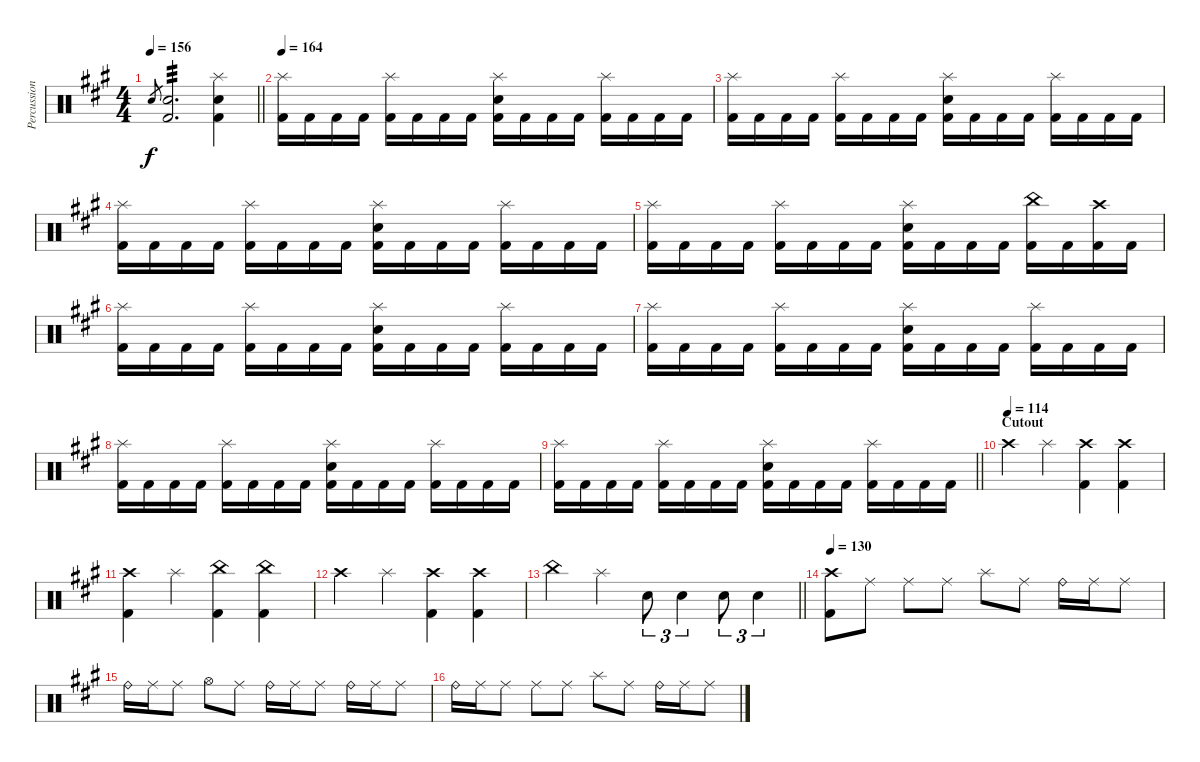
\track ("Percussion" "Percussion") {instrument percussion bank 127}
\staff {score}
\articulation defaults
\ts (4 4)
\tempo 156
\clef neutral
\barLineRight lightlight
\ks a "Electric Snare (hit)".8{gr dy f}
("Electric Snare (hit)" "Kick (hit) 2").2{d tp 3} ("Splash (hit)" "Electric Snare (hit)" "Kick (hit) 2").4 |
\section ("" "")
\tempo 164
("Splash (hit)" "Kick (hit) 2").16 "Kick (hit) 2".16 "Kick (hit) 2".16 "Kick (hit) 2".16 ("Splash (hit)" "Kick (hit) 2").16 "Kick (hit) 2".16 "Kick (hit) 2".16 "Kick (hit) 2".16 ("Splash (hit)" "Electric Snare (hit)" "Kick (hit) 2").16 "Kick (hit) 2".16 "Kick (hit) 2".16 "Kick (hit) 2".16 ("Splash (hit)" "Kick (hit) 2").16 "Kick (hit) 2".16 "Kick (hit) 2".16 "Kick (hit) 2".16 |
("Splash (hit)" "Kick (hit) 2").16 "Kick (hit) 2".16 "Kick (hit) 2".16 "Kick (hit) 2".16 ("Splash (hit)" "Kick (hit) 2").16 "Kick (hit) 2".16 "Kick (hit) 2".16 "Kick (hit) 2".16 ("Splash (hit)" "Electric Snare (hit)" "Kick (hit) 2").16 "Kick (hit) 2".16 "Kick (hit) 2".16 "Kick (hit) 2".16 ("Splash (hit)" "Kick (hit) 2").16 "Kick (hit) 2".16 "Kick (hit) 2".16 "Kick (hit) 2".16 |
("Splash (hit)" "Kick (hit) 2").16 "Kick (hit) 2".16 "Kick (hit) 2".16 "Kick (hit) 2".16 ("Splash (hit)" "Kick (hit) 2").16 "Kick (hit) 2".16 "Kick (hit) 2".16 "Kick (hit) 2".16 ("Splash (hit)" "Electric Snare (hit)" "Kick (hit) 2").16 "Kick (hit) 2".16 "Kick (hit) 2".16 "Kick (hit) 2".16 ("Splash (hit)" "Kick (hit) 2").16 "Kick (hit) 2".16 "Kick (hit) 2".16 "Kick (hit) 2".16 |
("Splash (hit)" "Kick (hit) 2").16 "Kick (hit) 2".16 "Kick (hit) 2".16 "Kick (hit) 2".16 ("Splash (hit)" "Kick (hit) 2").16 "Kick (hit) 2".16 "Kick (hit) 2".16 "Kick (hit) 2".16 ("Splash (hit)" "Electric Snare (hit)" "Kick (hit) 2").16 "Kick (hit) 2".16 "Kick (hit) 2".16 "Kick (hit) 2".16 ("China (hit)" "Kick (hit) 2").16 "Kick (hit) 2".16 ("Crash high (hit)" "Kick (hit) 2").16 "Kick (hit) 2".16 |
("Splash (hit)" "Kick (hit) 2").16 "Kick (hit) 2".16 "Kick (hit) 2".16 "Kick (hit) 2".16 ("Splash (hit)" "Kick (hit) 2").16 "Kick (hit) 2".16 "Kick (hit) 2".16 "Kick (hit) 2".16 ("Splash (hit)" "Electric Snare (hit)" "Kick (hit) 2").16 "Kick (hit) 2".16 "Kick (hit) 2".16 "Kick (hit) 2".16 ("Splash (hit)" "Kick (hit) 2").16 "Kick (hit) 2".16 "Kick (hit) 2".16 "Kick (hit) 2".16 |
("Splash (hit)" "Kick (hit) 2").16 "Kick (hit) 2".16 "Kick (hit) 2".16 "Kick (hit) 2".16 ("Splash (hit)" "Kick (hit) 2").16 "Kick (hit) 2".16 "Kick (hit) 2".16 "Kick (hit) 2".16 ("Splash (hit)" "Electric Snare (hit)" "Kick (hit) 2").16 "Kick (hit) 2".16 "Kick (hit) 2".16 "Kick (hit) 2".16 ("Splash (hit)" "Kick (hit) 2").16 "Kick (hit) 2".16 "Kick (hit) 2".16 "Kick (hit) 2".16 |
("Splash (hit)" "Kick (hit) 2").16 "Kick (hit) 2".16 "Kick (hit) 2".16 "Kick (hit) 2".16 ("Splash (hit)" "Kick (hit) 2").16 "Kick (hit) 2".16 "Kick (hit) 2".16 "Kick (hit) 2".16 ("Splash (hit)" "Electric Snare (hit)" "Kick (hit) 2").16 "Kick (hit) 2".16 "Kick (hit) 2".16 "Kick (hit) 2".16 ("Splash (hit)" "Kick (hit) 2").16 "Kick (hit) 2".16 "Kick (hit) 2".16 "Kick (hit) 2".16 |
\barLineRight lightlight
("Splash (hit)" "Kick (hit) 2").16 "Kick (hit) 2".16 "Kick (hit) 2".16 "Kick (hit) 2".16 ("Splash (hit)" "Kick (hit) 2").16 "Kick (hit) 2".16 "Kick (hit) 2".16 "Kick (hit) 2".16 ("Splash (hit)" "Electric Snare (hit)" "Kick (hit) 2").16 "Kick (hit) 2".16 "Kick (hit) 2".16 "Kick (hit) 2".16 ("Splash (hit)" "Kick (hit) 2").16 "Kick (hit) 2".16 "Kick (hit) 2".16 "Kick (hit) 2".16 |
\section ("" "Cutout")
\tempo (114)
"Crash high (hit)".4 "Splash (hit)".4 ("Crash high (hit)" "Kick (hit) 2").4 ("Crash high (hit)" "Kick (hit) 2").4 |
("Crash high (hit)" "Kick (hit) 2").4 "Splash (hit)".4 ("China (hit)" "Kick (hit) 2").4 ("China (hit)" "Kick (hit) 2").4 |
"Crash high (hit)".4 "Splash (hit)".4 ("Crash high (hit)" "Kick (hit) 2").4 ("Crash high (hit)" "Kick (hit) 2").4 |
\barLineRight lightlight "China (hit)".4 "Splash (hit)".4 "Electric Snare (hit)".8{tu (3 2)} "Electric Snare (hit)".4{tu (3 2)} "Electric Snare (hit)".8{tu (3 2)} "Electric Snare (hit)".4{tu (3 2)}
|
\section ("" "")
\tempo 130
("Crash high (hit)" "Kick (hit) 2").8 "Ride (middle)".8 "Ride (middle)".8 "Ride (middle)".8 "Splash (hit)".8 "Ride (middle)".8 "Ride (bell)".16 "Ride (middle)".16 "Ride (middle)".8 |
"Ride (bell)".16 "Ride (middle)".16 "Ride (middle)".8 "Hi-Hat (open)".8 "Ride (middle)".8 "Ride (bell)".16 "Ride (middle)".16 "Ride (middle)".8 "Ride (bell)".16 "Ride (middle)".16 "Ride (middle)".8 |
"Ride (bell)".16 "Ride (middle)".16 "Ride (middle)".8 "Ride (middle)".8 "Ride (middle)".8 "Splash (hit)".8 "Ride (middle)".8 "Ride (bell)".16 "Ride (middle)".16 "Ride (middle)".8
